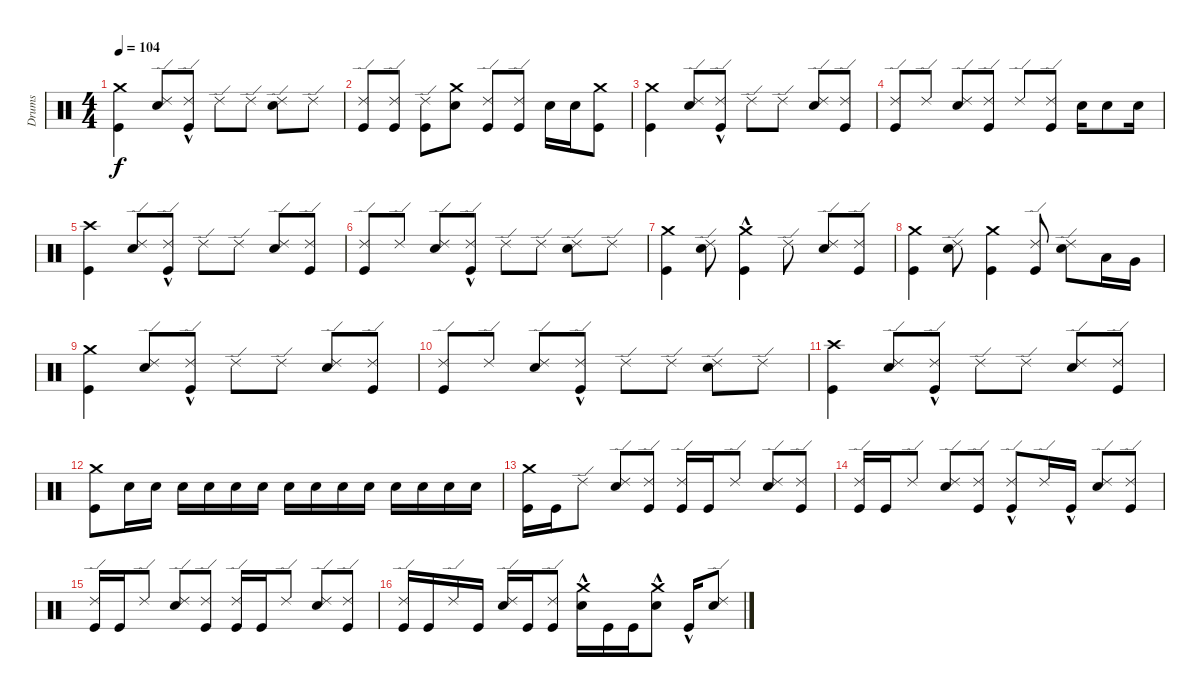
\track ("Drums" "Drums") {instrument percussion}
\staff {score}
\articulation defaults
\ts (4 4)
\tempo 104
\clef neutral
\ks c
("Kick (hit)" "Crash medium (hit)").4{dy f} ("Electric Snare (hit)" "Ride (edge) 2").8 ("Kick (hit)"{hac} "Ride (edge) 2").8 "Ride (edge) 2".8 "Ride (edge) 2".8 ("Electric Snare (hit)" "Ride (edge) 2").8 "Ride (edge) 2".8 |
("Kick (hit)" "Ride (edge) 2").8 ("Kick (hit)" "Ride (edge) 2").8 ("Kick (hit)" "Ride (edge) 2").8 ("Electric Snare (hit)" "Crash medium (hit)").8 ("Kick (hit)" "Ride (edge) 2").8 ("Kick (hit)" "Ride (edge) 2").8 "Electric Snare (hit)".16 "Electric Snare (hit)".16 ("Kick (hit)" "Crash medium (hit)").8 |
("Kick (hit)" "Crash medium (hit)").4 ("Electric Snare (hit)" "Ride (edge) 2").8 ("Kick (hit)"{hac} "Ride (edge) 2").8 "Ride (edge) 2".8 "Ride (edge) 2".8 ("Electric Snare (hit)" "Ride (edge) 2").8 ("Kick (hit)" "Ride (edge) 2").8 |
("Kick (hit)" "Ride (edge) 2").8 "Ride (edge) 2".8 ("Electric Snare (hit)" "Ride (edge) 2").8 ("Kick (hit)" "Ride (edge) 2").8 "Ride (edge) 2".8 ("Kick (hit)" "Ride (edge) 2").8 "Electric Snare (hit)".16 "Electric Snare (hit)".8 "Electric Snare (hit)".16 |
("Kick (hit)" "Crash high (hit)").4 ("Electric Snare (hit)" "Ride (edge) 2").8 ("Kick (hit)"{hac} "Ride (edge) 2").8 "Ride (edge) 2".8 "Ride (edge) 2".8 ("Electric Snare (hit)" "Ride (edge) 2").8 ("Kick (hit)" "Ride (edge) 2").8 |
("Kick (hit)" "Ride (edge) 2").8 "Ride (edge) 2".8 ("Electric Snare (hit)" "Ride (edge) 2").8 ("Kick (hit)"{hac} "Ride (edge) 2").8 "Ride (edge) 2".8 "Ride (edge) 2".8 ("Electric Snare (hit)" "Ride (edge) 2").8 "Ride (edge) 2".8 |
("Kick (hit)" "Crash medium (hit)").4 ("Electric Snare (hit)" "Ride (edge) 2").8 ("Kick (hit)"{hac} "Crash medium (hit)").4 "Ride (edge) 2".8 ("Electric Snare (hit)" "Ride (edge) 2").8 ("Kick (hit)" "Ride (edge) 2").8 |
("Kick (hit)" "Crash medium (hit)").4 ("Electric Snare (hit)" "Ride (edge) 2").8 ("Kick (hit)" "Crash medium (hit)").4 ("Kick (hit)" "Ride (edge) 2").8 ("Electric Snare (hit)" "Ride (edge) 2").8 "Low Tom (hit)".16 "Very Low Tom (hit)".16 |
("Kick (hit)" "Crash medium (hit)").4 ("Electric Snare (hit)" "Ride (edge) 2").8 ("Kick (hit)"{hac} "Ride (edge) 2").8 "Ride (edge) 2".8 "Ride (edge) 2".8 ("Electric Snare (hit)" "Ride (edge) 2").8 ("Kick (hit)" "Ride (edge) 2").8 |
("Kick (hit)" "Ride (edge) 2").8 "Ride (edge) 2".8 ("Electric Snare (hit)" "Ride (edge) 2").8 ("Kick (hit)"{hac} "Ride (edge) 2").8 "Ride (edge) 2".8 "Ride (edge) 2".8 ("Electric Snare (hit)" "Ride (edge) 2").8 "Ride (edge) 2".8 |
("Kick (hit)" "Crash high (hit)").4 ("Electric Snare (hit)" "Ride (edge) 2").8 ("Kick (hit)"{hac} "Ride (edge) 2").8 "Ride (edge) 2".8 "Ride (edge) 2".8 ("Electric Snare (hit)" "Ride (edge) 2").8 ("Kick (hit)" "Ride (edge) 2").8 |
("Kick (hit)" "Crash medium (hit)").8 "Electric Snare (hit)".16 "Electric Snare (hit)".16 "Electric Snare (hit)".16 "Electric Snare (hit)".16 "Electric Snare (hit)".16 "Electric Snare (hit)".16 "Electric Snare (hit)".16 "Electric Snare (hit)".16 "Electric Snare (hit)".16 "Electric Snare (hit)".16 "Electric Snare (hit)".16 "Electric Snare (hit)".16 "Electric Snare (hit)".16 "Electric Snare (hit)".16 |
("Kick (hit)" "Crash medium (hit)").16 "Kick (hit)".16 "Ride (edge) 2".8 ("Electric Snare (hit)" "Ride (edge) 2").8 ("Kick (hit)" "Ride (edge) 2").8 ("Ride (edge) 2" "Kick (hit)").16 "Kick (hit)".16 "Ride (edge) 2".8 ("Electric Snare (hit)" "Ride (edge) 2").8 ("Kick (hit)" "Ride (edge) 2").8 |
("Kick (hit)" "Ride (edge) 2").16 "Kick (hit)".16 "Ride (edge) 2".8 ("Electric Snare (hit)" "Ride (edge) 2").8 ("Kick (hit)" "Ride (edge) 2").8 ("Kick (hit)"{hac} "Ride (edge) 2").8 "Ride (edge) 2".16 "Kick (hit)"{hac}.16 ("Electric Snare (hit)" "Ride (edge) 2").8 ("Kick (hit)" "Ride (edge) 2").8 |
("Kick (hit)" "Ride (edge) 2").16 "Kick (hit)".16 "Ride (edge) 2".8 ("Electric Snare (hit)" "Ride (edge) 2").8 ("Kick (hit)" "Ride (edge) 2").8 ("Kick (hit)" "Ride (edge) 2").16 "Kick (hit)".16 "Ride (edge) 2".8 ("Electric Snare (hit)" "Ride (edge) 2").8 ("Kick (hit)" "Ride (edge) 2").8 |
("Kick (hit)" "Ride (edge) 2").16 "Kick (hit)".16 "Ride (edge) 2".16 "Kick (hit)".16 ("Electric Snare (hit)" "Ride (edge) 2").16 "Kick (hit)".16 ("Kick (hit)" "Ride (edge) 2").8 ("Electric Snare (hit)"{hac} "Crash medium (hit)"{hac}).16 "Kick (hit)".16 "Kick (hit)".16 ("Electric Snare (hit)"{hac} "Crash medium (hit)"{hac}).8 "Kick (hit)"{hac}.16 ("Electric Snare (hit)" "Ride (edge) 2").8
